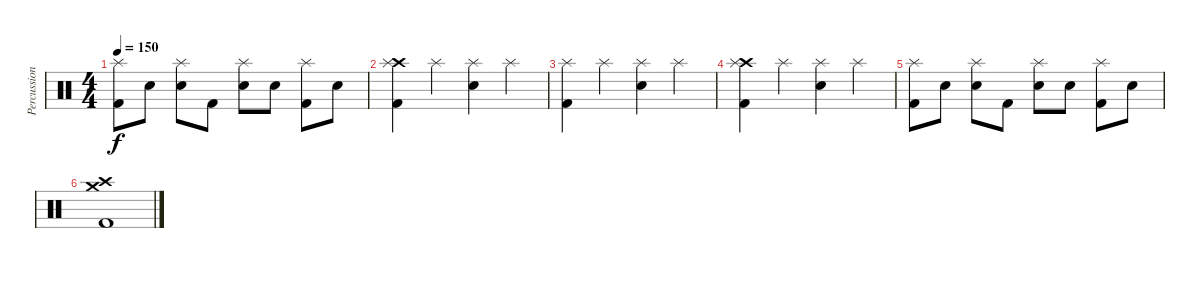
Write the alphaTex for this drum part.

\track ("Percussion" "Percussion") {instrument percussion}
\staff {score}
\articulation defaults
\ts (4 4)
\tempo 150
\clef neutral
\ks c
("Splash (hit)" "Kick (hit) 2").8{dy f} "Snare (hit) 2".8 ("Splash (hit)" "Snare (hit) 2").8 "Kick (hit) 2".8 ("Splash (hit)" "Snare (hit) 2").8 "Snare (hit) 2".8 ("Splash (hit)" "Kick (hit) 2").8 "Snare (hit) 2".8 |
("Crash high (hit)" "Splash (hit)" "Kick (hit) 2").4 "Splash (hit)".4 ("Splash (hit)" "Snare (hit) 2").4 "Splash (hit)".4 |
("Splash (hit)" "Kick (hit) 2").4 "Splash (hit)".4 ("Splash (hit)" "Snare (hit) 2").4 "Splash (hit)".4 |
("Crash high (hit)" "Splash (hit)" "Kick (hit) 2").4 "Splash (hit)".4 ("Splash (hit)" "Snare (hit) 2").4 "Splash (hit)".4 |
("Splash (hit)" "Kick (hit) 2").8 "Snare (hit) 2".8 ("Splash (hit)" "Snare (hit) 2").8 "Kick (hit) 2".8 ("Splash (hit)" "Snare (hit) 2").8 "Snare (hit) 2".8 ("Splash (hit)" "Kick (hit) 2").8 "Snare (hit) 2".8 |
("Crash high (hit)" "Crash medium (hit)" "Kick (hit) 2").1
